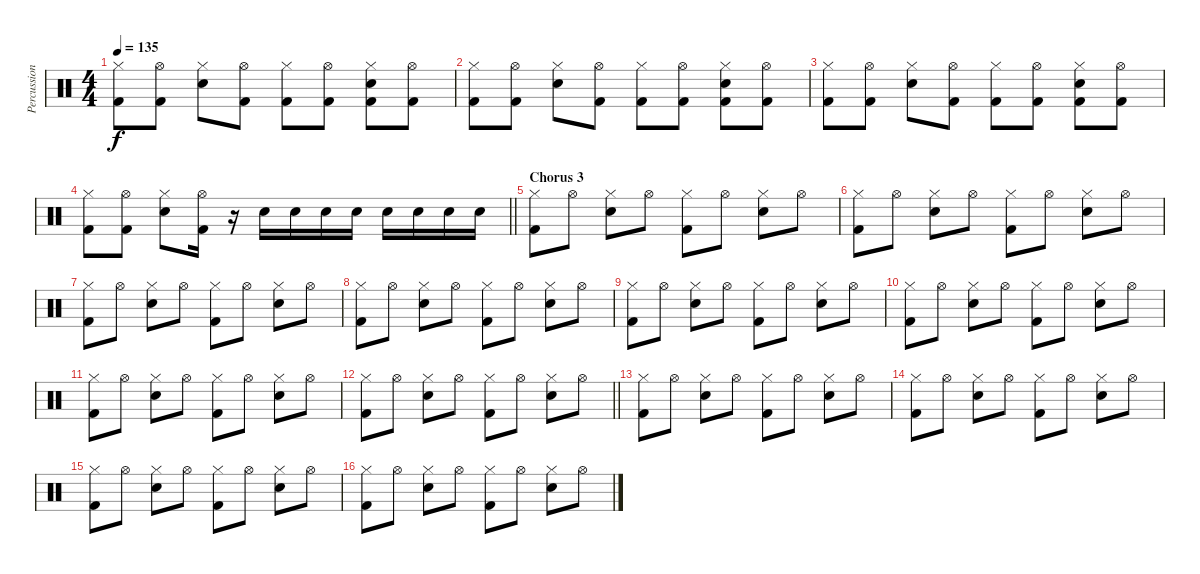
\track ("Percussion" "Percussion") {instrument percussion}
\staff {score}
\articulation defaults
\ts (4 4)
\tempo 135
\clef neutral
\ks c
("Hi-Hat (closed)" "Kick (hit) 2").8{dy f} ("Hi-Hat (open)" "Kick (hit) 2").8 ("Hi-Hat (closed)" "Snare (hit) 2").8 ("Hi-Hat (open)" "Kick (hit) 2").8 ("Hi-Hat (closed)" "Kick (hit) 2").8 ("Hi-Hat (open)" "Kick (hit) 2").8 ("Snare (hit) 2" "Hi-Hat (closed)" "Kick (hit) 2").8 ("Hi-Hat (open)" "Kick (hit) 2").8 |
("Hi-Hat (closed)" "Kick (hit) 2").8 ("Hi-Hat (open)" "Kick (hit) 2").8 ("Hi-Hat (closed)" "Snare (hit) 2").8 ("Hi-Hat (open)" "Kick (hit) 2").8 ("Hi-Hat (closed)" "Kick (hit) 2").8 ("Hi-Hat (open)" "Kick (hit) 2").8 ("Snare (hit) 2" "Hi-Hat (closed)" "Kick (hit) 2").8 ("Hi-Hat (open)" "Kick (hit) 2").8 |
("Hi-Hat (closed)" "Kick (hit) 2").8 ("Hi-Hat (open)" "Kick (hit) 2").8 ("Hi-Hat (closed)" "Snare (hit) 2").8 ("Hi-Hat (open)" "Kick (hit) 2").8 ("Hi-Hat (closed)" "Kick (hit) 2").8 ("Hi-Hat (open)" "Kick (hit) 2").8 ("Snare (hit) 2" "Hi-Hat (closed)" "Kick (hit) 2").8 ("Hi-Hat (open)" "Kick (hit) 2").8 |
\barLineRight lightlight
("Hi-Hat (closed)" "Kick (hit) 2").8 ("Hi-Hat (open)" "Kick (hit) 2").8 ("Hi-Hat (closed)" "Snare (hit) 2").8 ("Hi-Hat (open)" "Kick (hit) 2").16 r.16{volume 0} "Electric Snare (hit)".16{volume 13} "Electric Snare (hit)".16 "Electric Snare (hit)".16 "Electric Snare (hit)".16 "Electric Snare (hit)".16 "Electric Snare (hit)".16 "Electric Snare (hit)".16 "Electric Snare (hit)".16 |
\section ("" "Chorus 3")
("Hi-Hat (closed)" "Kick (hit) 2").8 "Hi-Hat (open)".8 ("Hi-Hat (closed)" "Snare (hit) 2").8 "Hi-Hat (open)".8 ("Hi-Hat (closed)" "Kick (hit) 2").8 "Hi-Hat (open)".8 ("Hi-Hat (closed)" "Snare (hit) 2").8 "Hi-Hat (open)".8 |
("Hi-Hat (closed)" "Kick (hit) 2").8 "Hi-Hat (open)".8 ("Hi-Hat (closed)" "Snare (hit) 2").8 "Hi-Hat (open)".8 ("Hi-Hat (closed)" "Kick (hit) 2").8 "Hi-Hat (open)".8 ("Hi-Hat (closed)" "Snare (hit) 2").8 "Hi-Hat (open)".8 |
("Hi-Hat (closed)" "Kick (hit) 2").8 "Hi-Hat (open)".8 ("Hi-Hat (closed)" "Snare (hit) 2").8 "Hi-Hat (open)".8 ("Hi-Hat (closed)" "Kick (hit) 2").8 "Hi-Hat (open)".8 ("Hi-Hat (closed)" "Snare (hit) 2").8 "Hi-Hat (open)".8 |
("Hi-Hat (closed)" "Kick (hit) 2").8 "Hi-Hat (open)".8 ("Hi-Hat (closed)" "Snare (hit) 2").8 "Hi-Hat (open)".8 ("Hi-Hat (closed)" "Kick (hit) 2").8 "Hi-Hat (open)".8 ("Hi-Hat (closed)" "Snare (hit) 2").8 "Hi-Hat (open)".8 |
("Hi-Hat (closed)" "Kick (hit) 2").8 "Hi-Hat (open)".8 ("Hi-Hat (closed)" "Snare (hit) 2").8 "Hi-Hat (open)".8 ("Hi-Hat (closed)" "Kick (hit) 2").8 "Hi-Hat (open)".8 ("Hi-Hat (closed)" "Snare (hit) 2").8 "Hi-Hat (open)".8 |
("Hi-Hat (closed)" "Kick (hit) 2").8 "Hi-Hat (open)".8 ("Hi-Hat (closed)" "Snare (hit) 2").8 "Hi-Hat (open)".8 ("Hi-Hat (closed)" "Kick (hit) 2").8 "Hi-Hat (open)".8 ("Hi-Hat (closed)" "Snare (hit) 2").8 "Hi-Hat (open)".8 |
("Hi-Hat (closed)" "Kick (hit) 2").8 "Hi-Hat (open)".8 ("Hi-Hat (closed)" "Snare (hit) 2").8 "Hi-Hat (open)".8 ("Hi-Hat (closed)" "Kick (hit) 2").8 "Hi-Hat (open)".8 ("Hi-Hat (closed)" "Snare (hit) 2").8 "Hi-Hat (open)".8 |
\barLineRight lightlight
("Hi-Hat (closed)" "Kick (hit) 2").8 "Hi-Hat (open)".8 ("Hi-Hat (closed)" "Snare (hit) 2").8 "Hi-Hat (open)".8 ("Hi-Hat (closed)" "Kick (hit) 2").8 "Hi-Hat (open)".8 ("Hi-Hat (closed)" "Snare (hit) 2").8 "Hi-Hat (open)".8 |
("Hi-Hat (closed)" "Kick (hit) 2").8 "Hi-Hat (open)".8 ("Hi-Hat (closed)" "Snare (hit) 2").8 "Hi-Hat (open)".8 ("Hi-Hat (closed)" "Kick (hit) 2").8 "Hi-Hat (open)".8 ("Hi-Hat (closed)" "Snare (hit) 2").8 "Hi-Hat (open)".8 |
("Hi-Hat (closed)" "Kick (hit) 2").8 "Hi-Hat (open)".8 ("Hi-Hat (closed)" "Snare (hit) 2").8 "Hi-Hat (open)".8 ("Hi-Hat (closed)" "Kick (hit) 2").8 "Hi-Hat (open)".8 ("Hi-Hat (closed)" "Snare (hit) 2").8 "Hi-Hat (open)".8 |
("Hi-Hat (closed)" "Kick (hit) 2").8 "Hi-Hat (open)".8 ("Hi-Hat (closed)" "Snare (hit) 2").8 "Hi-Hat (open)".8 ("Hi-Hat (closed)" "Kick (hit) 2").8 "Hi-Hat (open)".8 ("Hi-Hat (closed)" "Snare (hit) 2").8 "Hi-Hat (open)".8 |
("Hi-Hat (closed)" "Kick (hit) 2").8 "Hi-Hat (open)".8 ("Hi-Hat (closed)" "Snare (hit) 2").8 "Hi-Hat (open)".8 ("Hi-Hat (closed)" "Kick (hit) 2").8 "Hi-Hat (open)".8 ("Hi-Hat (closed)" "Snare (hit) 2").8 "Hi-Hat (open)".8
